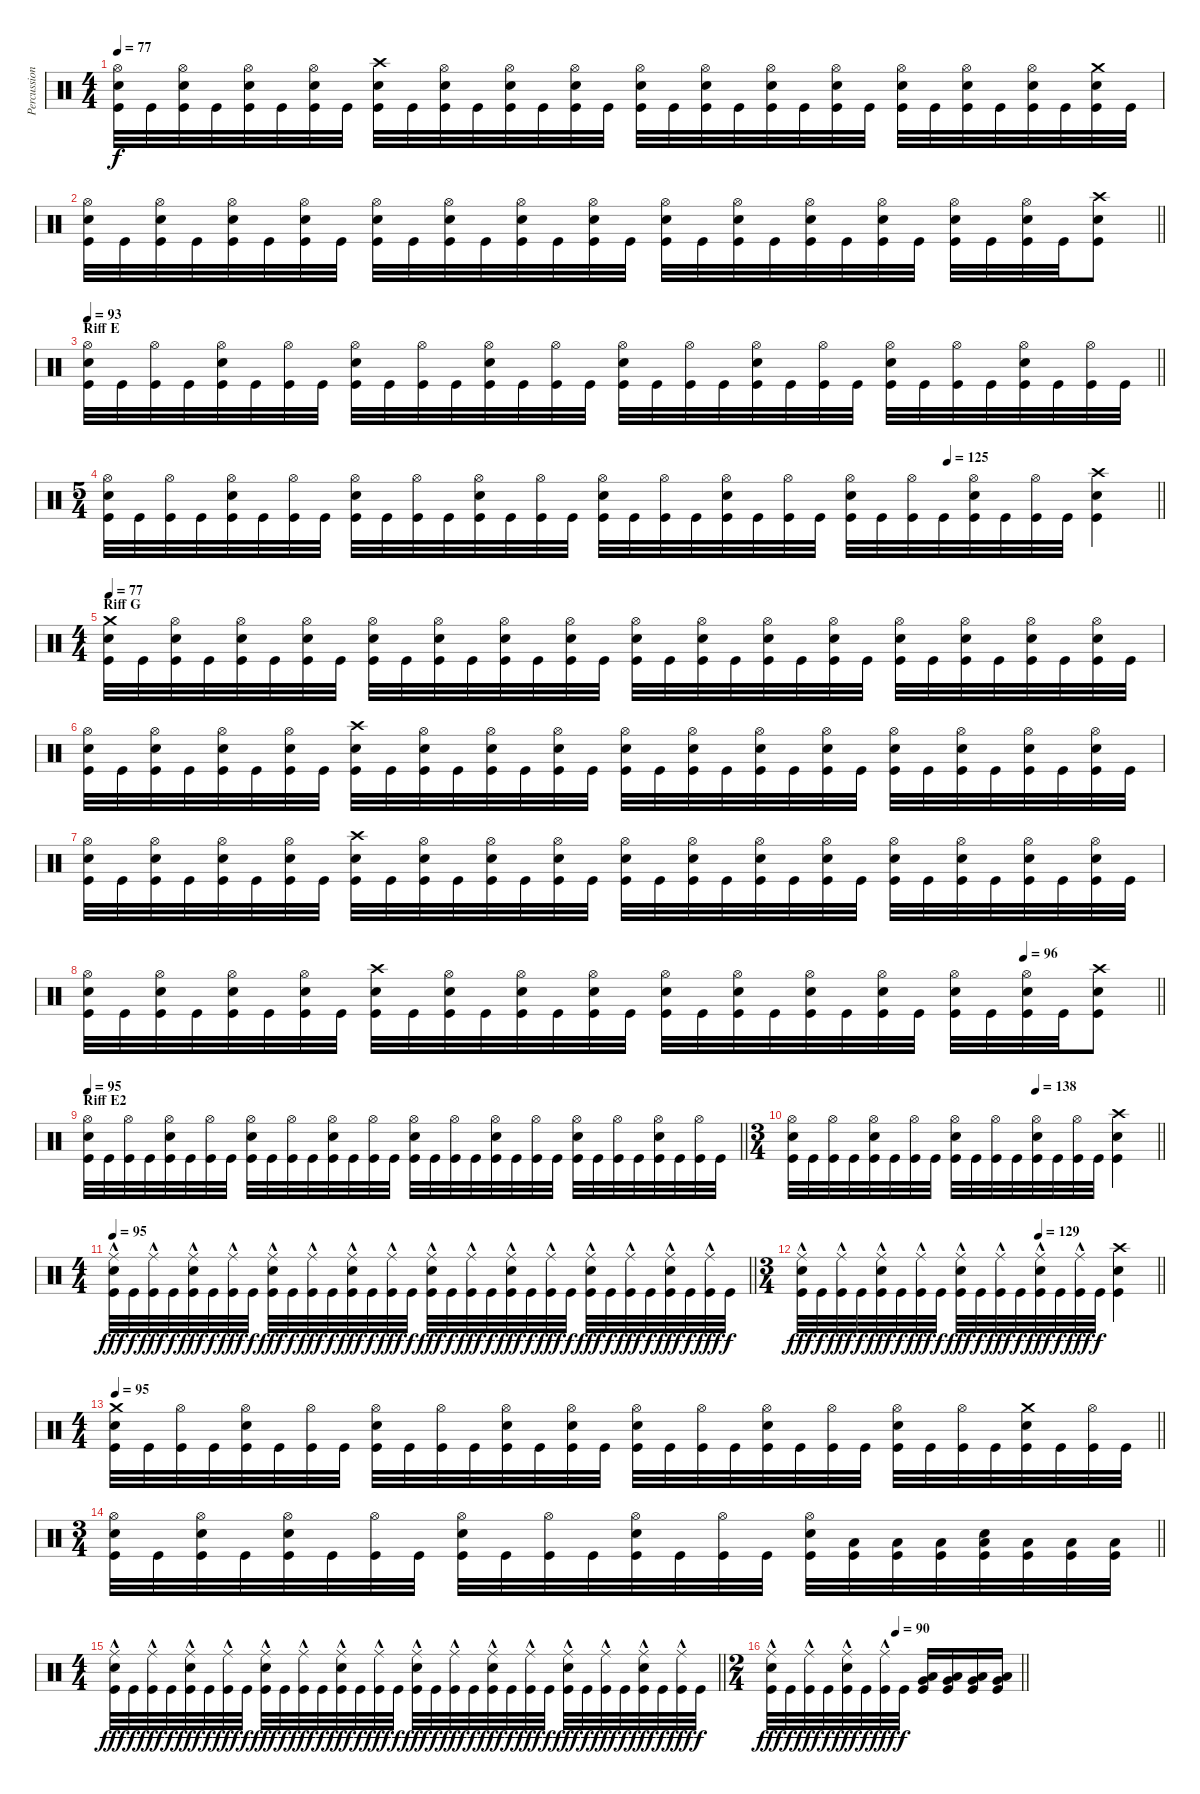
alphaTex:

\track ("Percussion" "Percussion") {instrument percussion}
\staff {score}
\articulation defaults
\ts (4 4)
\tempo 77
\clef neutral
\ks c
("Kick (hit)" "Snare (hit) 2" "Hi-Hat (open)").32{dy f} "Kick (hit)".32 ("Kick (hit)" "Snare (hit) 2" "Hi-Hat (open)").32 "Kick (hit)".32 ("Kick (hit)" "Snare (hit) 2" "Hi-Hat (open)").32 "Kick (hit)".32 ("Kick (hit)" "Snare (hit) 2" "Hi-Hat (open)").32 "Kick (hit)".32 ("Kick (hit)" "Snare (hit) 2" "Crash high (hit)").32 "Kick (hit)".32 ("Kick (hit)" "Snare (hit) 2" "Hi-Hat (open)").32 "Kick (hit)".32 ("Kick (hit)" "Snare (hit) 2" "Hi-Hat (open)").32 "Kick (hit)".32 ("Kick (hit)" "Snare (hit) 2" "Hi-Hat (open)").32 "Kick (hit)".32 ("Kick (hit)" "Snare (hit) 2" "Hi-Hat (open)").32 "Kick (hit)".32 ("Kick (hit)" "Snare (hit) 2" "Hi-Hat (open)").32 "Kick (hit)".32 ("Kick (hit)" "Snare (hit) 2" "Hi-Hat (open)").32 "Kick (hit)".32 ("Kick (hit)" "Snare (hit) 2" "Hi-Hat (open)").32 "Kick (hit)".32 ("Kick (hit)" "Snare (hit) 2" "Hi-Hat (open)").32 "Kick (hit)".32 ("Kick (hit)" "Snare (hit) 2" "Hi-Hat (open)").32 "Kick (hit)".32 ("Kick (hit)" "Snare (hit) 2" "Hi-Hat (open)").32 "Kick (hit)".32 ("Kick (hit)" "Snare (hit) 2" "Crash medium (hit)").32 "Kick (hit)".32 |
\barLineRight lightlight
("Kick (hit)" "Snare (hit) 2" "Hi-Hat (open)").32 "Kick (hit)".32 ("Kick (hit)" "Snare (hit) 2" "Hi-Hat (open)").32 "Kick (hit)".32 ("Kick (hit)" "Snare (hit) 2" "Hi-Hat (open)").32 "Kick (hit)".32 ("Kick (hit)" "Snare (hit) 2" "Hi-Hat (open)").32 "Kick (hit)".32 ("Kick (hit)" "Snare (hit) 2" "Hi-Hat (open)").32 "Kick (hit)".32 ("Kick (hit)" "Snare (hit) 2" "Hi-Hat (open)").32 "Kick (hit)".32 ("Kick (hit)" "Snare (hit) 2" "Hi-Hat (open)").32 "Kick (hit)".32 ("Kick (hit)" "Snare (hit) 2" "Hi-Hat (open)").32 "Kick (hit)".32 ("Kick (hit)" "Snare (hit) 2" "Hi-Hat (open)").32 "Kick (hit)".32 ("Kick (hit)" "Snare (hit) 2" "Hi-Hat (open)").32 "Kick (hit)".32 ("Kick (hit)" "Snare (hit) 2" "Hi-Hat (open)").32 "Kick (hit)".32 ("Kick (hit)" "Snare (hit) 2" "Hi-Hat (open)").32 "Kick (hit)".32 ("Kick (hit)" "Snare (hit) 2" "Hi-Hat (open)").32 "Kick (hit)".32 ("Kick (hit)" "Snare (hit) 2" "Hi-Hat (open)").32 "Kick (hit)".32 ("Kick (hit)" "Snare (hit) 2" "Crash high (hit)").8 |
\section ("" "Riff E")
\tempo 93
\barLineRight lightlight
("Kick (hit)" "Hi-Hat (open)" "Snare (hit) 2").32 "Kick (hit)".32 ("Kick (hit)" "Hi-Hat (open)").32 "Kick (hit)".32 ("Kick (hit)" "Hi-Hat (open)" "Snare (hit) 2").32 "Kick (hit)".32 ("Kick (hit)" "Hi-Hat (open)").32 "Kick (hit)".32 ("Kick (hit)" "Hi-Hat (open)" "Snare (hit) 2").32 "Kick (hit)".32 ("Kick (hit)" "Hi-Hat (open)").32 "Kick (hit)".32 ("Kick (hit)" "Hi-Hat (open)" "Snare (hit) 2").32 "Kick (hit)".32 ("Kick (hit)" "Hi-Hat (open)").32 "Kick (hit)".32 ("Kick (hit)" "Hi-Hat (open)" "Snare (hit) 2").32 "Kick (hit)".32 ("Kick (hit)" "Hi-Hat (open)").32 "Kick (hit)".32 ("Kick (hit)" "Hi-Hat (open)" "Snare (hit) 2").32 "Kick (hit)".32 ("Kick (hit)" "Hi-Hat (open)").32 "Kick (hit)".32 ("Kick (hit)" "Hi-Hat (open)" "Snare (hit) 2").32 "Kick (hit)".32 ("Kick (hit)" "Hi-Hat (open)").32 "Kick (hit)".32 ("Kick (hit)" "Hi-Hat (open)" "Snare (hit) 2").32 "Kick (hit)".32 ("Kick (hit)" "Hi-Hat (open)").32 "Kick (hit)".32 |
\ts (5 4)
\tempo (125 0.8)
\barLineRight lightlight
("Kick (hit)" "Hi-Hat (open)" "Snare (hit) 2").32 "Kick (hit)".32 ("Kick (hit)" "Hi-Hat (open)").32 "Kick (hit)".32 ("Kick (hit)" "Hi-Hat (open)" "Snare (hit) 2").32 "Kick (hit)".32 ("Kick (hit)" "Hi-Hat (open)").32 "Kick (hit)".32 ("Kick (hit)" "Hi-Hat (open)" "Snare (hit) 2").32 "Kick (hit)".32 ("Kick (hit)" "Hi-Hat (open)").32 "Kick (hit)".32 ("Kick (hit)" "Hi-Hat (open)" "Snare (hit) 2").32 "Kick (hit)".32 ("Kick (hit)" "Hi-Hat (open)").32 "Kick (hit)".32 ("Kick (hit)" "Hi-Hat (open)" "Snare (hit) 2").32 "Kick (hit)".32 ("Kick (hit)" "Hi-Hat (open)").32 "Kick (hit)".32 ("Kick (hit)" "Hi-Hat (open)" "Snare (hit) 2").32 "Kick (hit)".32 ("Kick (hit)" "Hi-Hat (open)").32 "Kick (hit)".32 ("Kick (hit)" "Hi-Hat (open)" "Snare (hit) 2").32 "Kick (hit)".32 ("Kick (hit)" "Hi-Hat (open)").32 "Kick (hit)".32 ("Kick (hit)" "Hi-Hat (open)" "Snare (hit) 2").32 "Kick (hit)".32 ("Kick (hit)" "Hi-Hat (open)").32 "Kick (hit)".32 ("Snare (hit) 2" "Crash high (hit)" "Kick (hit)").4 |
\ts (4 4)
\section ("" "Riff G")
\tempo 77
("Kick (hit)" "Snare (hit) 2" "Crash medium (hit)").32 "Kick (hit)".32 ("Kick (hit)" "Snare (hit) 2" "Hi-Hat (open)").32 "Kick (hit)".32 ("Kick (hit)" "Snare (hit) 2" "Hi-Hat (open)").32 "Kick (hit)".32 ("Kick (hit)" "Snare (hit) 2" "Hi-Hat (open)").32 "Kick (hit)".32 ("Kick (hit)" "Snare (hit) 2" "Hi-Hat (open)").32 "Kick (hit)".32 ("Kick (hit)" "Snare (hit) 2" "Hi-Hat (open)").32 "Kick (hit)".32 ("Kick (hit)" "Snare (hit) 2" "Hi-Hat (open)").32 "Kick (hit)".32 ("Kick (hit)" "Snare (hit) 2" "Hi-Hat (open)").32 "Kick (hit)".32 ("Kick (hit)" "Snare (hit) 2" "Hi-Hat (open)").32 "Kick (hit)".32 ("Kick (hit)" "Snare (hit) 2" "Hi-Hat (open)").32 "Kick (hit)".32 ("Kick (hit)" "Snare (hit) 2" "Hi-Hat (open)").32 "Kick (hit)".32 ("Kick (hit)" "Snare (hit) 2" "Hi-Hat (open)").32 "Kick (hit)".32 ("Kick (hit)" "Snare (hit) 2" "Hi-Hat (open)").32 "Kick (hit)".32 ("Kick (hit)" "Snare (hit) 2" "Hi-Hat (open)").32 "Kick (hit)".32 ("Kick (hit)" "Snare (hit) 2" "Hi-Hat (open)").32 "Kick (hit)".32 ("Kick (hit)" "Snare (hit) 2" "Hi-Hat (open)").32 "Kick (hit)".32 |
("Kick (hit)" "Snare (hit) 2" "Hi-Hat (open)").32 "Kick (hit)".32 ("Kick (hit)" "Snare (hit) 2" "Hi-Hat (open)").32 "Kick (hit)".32 ("Kick (hit)" "Snare (hit) 2" "Hi-Hat (open)").32 "Kick (hit)".32 ("Kick (hit)" "Snare (hit) 2" "Hi-Hat (open)").32 "Kick (hit)".32 ("Kick (hit)" "Snare (hit) 2" "Crash high (hit)").32 "Kick (hit)".32 ("Kick (hit)" "Snare (hit) 2" "Hi-Hat (open)").32 "Kick (hit)".32 ("Kick (hit)" "Snare (hit) 2" "Hi-Hat (open)").32 "Kick (hit)".32 ("Kick (hit)" "Snare (hit) 2" "Hi-Hat (open)").32 "Kick (hit)".32 ("Kick (hit)" "Snare (hit) 2" "Hi-Hat (open)").32 "Kick (hit)".32 ("Kick (hit)" "Snare (hit) 2" "Hi-Hat (open)").32 "Kick (hit)".32 ("Kick (hit)" "Snare (hit) 2" "Hi-Hat (open)").32 "Kick (hit)".32 ("Kick (hit)" "Snare (hit) 2" "Hi-Hat (open)").32 "Kick (hit)".32 ("Kick (hit)" "Snare (hit) 2" "Hi-Hat (open)").32 "Kick (hit)".32 ("Kick (hit)" "Snare (hit) 2" "Hi-Hat (open)").32 "Kick (hit)".32 ("Kick (hit)" "Snare (hit) 2" "Hi-Hat (open)").32 "Kick (hit)".32 ("Kick (hit)" "Snare (hit) 2" "Hi-Hat (open)").32 "Kick (hit)".32 |
("Kick (hit)" "Snare (hit) 2" "Hi-Hat (open)").32 "Kick (hit)".32 ("Kick (hit)" "Snare (hit) 2" "Hi-Hat (open)").32 "Kick (hit)".32 ("Kick (hit)" "Snare (hit) 2" "Hi-Hat (open)").32 "Kick (hit)".32 ("Kick (hit)" "Snare (hit) 2" "Hi-Hat (open)").32 "Kick (hit)".32 ("Kick (hit)" "Snare (hit) 2" "Crash high (hit)").32 "Kick (hit)".32 ("Kick (hit)" "Snare (hit) 2" "Hi-Hat (open)").32 "Kick (hit)".32 ("Kick (hit)" "Snare (hit) 2" "Hi-Hat (open)").32 "Kick (hit)".32 ("Kick (hit)" "Snare (hit) 2" "Hi-Hat (open)").32 "Kick (hit)".32 ("Kick (hit)" "Snare (hit) 2" "Hi-Hat (open)").32 "Kick (hit)".32 ("Kick (hit)" "Snare (hit) 2" "Hi-Hat (open)").32 "Kick (hit)".32 ("Kick (hit)" "Snare (hit) 2" "Hi-Hat (open)").32 "Kick (hit)".32 ("Kick (hit)" "Snare (hit) 2" "Hi-Hat (open)").32 "Kick (hit)".32 ("Kick (hit)" "Snare (hit) 2" "Hi-Hat (open)").32 "Kick (hit)".32 ("Kick (hit)" "Snare (hit) 2" "Hi-Hat (open)").32 "Kick (hit)".32 ("Kick (hit)" "Snare (hit) 2" "Hi-Hat (open)").32 "Kick (hit)".32 ("Kick (hit)" "Snare (hit) 2" "Hi-Hat (open)").32 "Kick (hit)".32 |
\tempo (96 0.875)
\barLineRight lightlight
("Kick (hit)" "Snare (hit) 2" "Hi-Hat (open)").32 "Kick (hit)".32 ("Kick (hit)" "Snare (hit) 2" "Hi-Hat (open)").32 "Kick (hit)".32 ("Kick (hit)" "Snare (hit) 2" "Hi-Hat (open)").32 "Kick (hit)".32 ("Kick (hit)" "Snare (hit) 2" "Hi-Hat (open)").32 "Kick (hit)".32 ("Kick (hit)" "Snare (hit) 2" "Crash high (hit)").32 "Kick (hit)".32 ("Kick (hit)" "Snare (hit) 2" "Hi-Hat (open)").32 "Kick (hit)".32 ("Kick (hit)" "Snare (hit) 2" "Hi-Hat (open)").32 "Kick (hit)".32 ("Kick (hit)" "Snare (hit) 2" "Hi-Hat (open)").32 "Kick (hit)".32 ("Kick (hit)" "Snare (hit) 2" "Hi-Hat (open)").32 "Kick (hit)".32 ("Kick (hit)" "Snare (hit) 2" "Hi-Hat (open)").32 "Kick (hit)".32 ("Kick (hit)" "Snare (hit) 2" "Hi-Hat (open)").32 "Kick (hit)".32 ("Kick (hit)" "Snare (hit) 2" "Hi-Hat (open)").32 "Kick (hit)".32 ("Kick (hit)" "Snare (hit) 2" "Hi-Hat (open)").32 "Kick (hit)".32 ("Kick (hit)" "Snare (hit) 2" "Hi-Hat (open)").32 "Kick (hit)".32 ("Kick (hit)" "Snare (hit) 2" "Crash high (hit)").8 |
\section ("" "Riff E2")
\tempo 95
\barLineRight lightlight
("Kick (hit)" "Hi-Hat (open)" "Snare (hit) 2").32 "Kick (hit)".32 ("Kick (hit)" "Hi-Hat (open)").32 "Kick (hit)".32 ("Kick (hit)" "Hi-Hat (open)" "Snare (hit) 2").32 "Kick (hit)".32 ("Kick (hit)" "Hi-Hat (open)").32 "Kick (hit)".32 ("Kick (hit)" "Hi-Hat (open)" "Snare (hit) 2").32 "Kick (hit)".32 ("Kick (hit)" "Hi-Hat (open)").32 "Kick (hit)".32 ("Kick (hit)" "Hi-Hat (open)" "Snare (hit) 2").32 "Kick (hit)".32 ("Kick (hit)" "Hi-Hat (open)").32 "Kick (hit)".32 ("Kick (hit)" "Hi-Hat (open)" "Snare (hit) 2").32 "Kick (hit)".32 ("Kick (hit)" "Hi-Hat (open)").32 "Kick (hit)".32 ("Kick (hit)" "Hi-Hat (open)" "Snare (hit) 2").32 "Kick (hit)".32 ("Kick (hit)" "Hi-Hat (open)").32 "Kick (hit)".32 ("Kick (hit)" "Hi-Hat (open)" "Snare (hit) 2").32 "Kick (hit)".32 ("Kick (hit)" "Hi-Hat (open)").32 "Kick (hit)".32 ("Kick (hit)" "Hi-Hat (open)" "Snare (hit) 2").32 "Kick (hit)".32 ("Kick (hit)" "Hi-Hat (open)").32 "Kick (hit)".32 |
\ts (3 4)
\tempo (138 0.6666666666666666)
\barLineRight lightlight
("Kick (hit)" "Hi-Hat (open)" "Snare (hit) 2").32 "Kick (hit)".32 ("Kick (hit)" "Hi-Hat (open)").32 "Kick (hit)".32 ("Kick (hit)" "Hi-Hat (open)" "Snare (hit) 2").32 "Kick (hit)".32 ("Kick (hit)" "Hi-Hat (open)").32 "Kick (hit)".32 ("Kick (hit)" "Hi-Hat (open)" "Snare (hit) 2").32 "Kick (hit)".32 ("Kick (hit)" "Hi-Hat (open)").32 "Kick (hit)".32 ("Kick (hit)" "Hi-Hat (open)" "Snare (hit) 2").32 "Kick (hit)".32 ("Kick (hit)" "Hi-Hat (open)").32 "Kick (hit)".32 ("Snare (hit) 2" "Crash high (hit)" "Kick (hit)").4 |
\ts (4 4)
\tempo 95
\barLineRight lightlight
("Kick (hit)" "Ride (middle)"{hac} "Snare (hit) 2").32{dy fff} "Kick (hit)".32{dy f} ("Kick (hit)" "Ride (middle)"{hac}).32{dy fff} "Kick (hit)".32{dy f} ("Kick (hit)" "Ride (middle)"{hac} "Snare (hit) 2").32{dy fff} "Kick (hit)".32{dy f} ("Kick (hit)" "Ride (middle)"{hac}).32{dy fff} "Kick (hit)".32{dy f} ("Kick (hit)" "Ride (middle)"{hac} "Snare (hit) 2").32{dy fff} "Kick (hit)".32{dy f} ("Kick (hit)" "Ride (middle)"{hac}).32{dy fff} "Kick (hit)".32{dy f} ("Kick (hit)" "Ride (middle)"{hac} "Snare (hit) 2").32{dy fff} "Kick (hit)".32{dy f} ("Kick (hit)" "Ride (middle)"{hac}).32{dy fff} "Kick (hit)".32{dy f} ("Kick (hit)" "Ride (middle)"{hac} "Snare (hit) 2").32{dy fff} "Kick (hit)".32{dy f} ("Kick (hit)" "Ride (middle)"{hac}).32{dy fff} "Kick (hit)".32{dy f} ("Kick (hit)" "Ride (middle)"{hac} "Snare (hit) 2").32{dy fff} "Kick (hit)".32{dy f} ("Kick (hit)" "Ride (middle)"{hac}).32{dy fff} "Kick (hit)".32{dy f} ("Kick (hit)" "Ride (middle)"{hac} "Snare (hit) 2").32{dy fff} "Kick (hit)".32{dy f} ("Kick (hit)" "Ride (middle)"{hac}).32{dy fff} "Kick (hit)".32{dy f} ("Kick (hit)" "Ride (middle)"{hac} "Snare (hit) 2").32{dy fff} "Kick (hit)".32{dy f} ("Kick (hit)" "Ride (middle)"{hac}).32{dy fff} "Kick (hit)".32{dy f} |
\ts (3 4)
\tempo (129 0.6666666666666666)
\barLineRight lightlight
("Kick (hit)" "Ride (middle)"{hac} "Snare (hit) 2").32{dy fff} "Kick (hit)".32{dy f} ("Kick (hit)" "Ride (middle)"{hac}).32{dy fff} "Kick (hit)".32{dy f} ("Kick (hit)" "Ride (middle)"{hac} "Snare (hit) 2").32{dy fff} "Kick (hit)".32{dy f} ("Kick (hit)" "Ride (middle)"{hac}).32{dy fff} "Kick (hit)".32{dy f} ("Kick (hit)" "Ride (middle)"{hac} "Snare (hit) 2").32{dy fff} "Kick (hit)".32{dy f} ("Kick (hit)" "Ride (middle)"{hac}).32{dy fff} "Kick (hit)".32{dy f} ("Kick (hit)" "Ride (middle)"{hac} "Snare (hit) 2").32{dy fff} "Kick (hit)".32{dy f} ("Kick (hit)" "Ride (middle)"{hac}).32{dy fff} "Kick (hit)".32{dy f} ("Snare (hit) 2" "Crash high (hit)" "Kick (hit)").4 |
\ts (4 4)
\tempo 95
\barLineRight lightlight
("Kick (hit)" "Crash medium (hit)" "Snare (hit) 2").32 "Kick (hit)".32 ("Kick (hit)" "Hi-Hat (open)").32 "Kick (hit)".32 ("Kick (hit)" "Hi-Hat (open)" "Snare (hit) 2").32 "Kick (hit)".32 ("Kick (hit)" "Hi-Hat (open)").32 "Kick (hit)".32 ("Kick (hit)" "Hi-Hat (open)" "Snare (hit) 2").32 "Kick (hit)".32 ("Kick (hit)" "Hi-Hat (open)").32 "Kick (hit)".32 ("Kick (hit)" "Hi-Hat (open)" "Snare (hit) 2").32 "Kick (hit)".32 ("Kick (hit)" "Hi-Hat (open)" "Snare (hit) 2").32 "Kick (hit)".32 ("Kick (hit)" "Hi-Hat (open)" "Snare (hit) 2").32 "Kick (hit)".32 ("Kick (hit)" "Hi-Hat (open)").32 "Kick (hit)".32 ("Kick (hit)" "Hi-Hat (open)" "Snare (hit) 2").32 "Kick (hit)".32 ("Kick (hit)" "Hi-Hat (open)").32 "Kick (hit)".32 ("Kick (hit)" "Hi-Hat (open)" "Snare (hit) 2").32 "Kick (hit)".32 ("Kick (hit)" "Hi-Hat (open)").32 "Kick (hit)".32 ("Kick (hit)" "Crash medium (hit)" "Snare (hit) 2").32 "Kick (hit)".32 ("Kick (hit)" "Hi-Hat (open)").32 "Kick (hit)".32 |
\ts (3 4)
\barLineRight lightlight
("Kick (hit)" "Hi-Hat (open)" "Snare (hit) 2").32 "Kick (hit)".32 ("Kick (hit)" "Hi-Hat (open)" "Snare (hit) 2").32 "Kick (hit)".32 ("Kick (hit)" "Hi-Hat (open)" "Snare (hit) 2").32 "Kick (hit)".32 ("Kick (hit)" "Hi-Hat (open)").32 "Kick (hit)".32 ("Kick (hit)" "Hi-Hat (open)" "Snare (hit) 2").32 "Kick (hit)".32 ("Kick (hit)" "Hi-Hat (open)").32 "Kick (hit)".32 ("Kick (hit)" "Hi-Hat (open)" "Snare (hit) 2").32 "Kick (hit)".32 ("Kick (hit)" "Hi-Hat (open)").32 "Kick (hit)".32 ("Kick (hit)" "Hi-Hat (open)" "Snare (hit) 2").32 ("Kick (hit)" "Low Floor Tom (hit)").32 ("Kick (hit)" "Low Floor Tom (hit)").32 ("Kick (hit)" "Low Floor Tom (hit)").32 ("Kick (hit)" "Low Tom (hit)" "Snare (hit) 2").32 ("Kick (hit)" "Low Floor Tom (hit)").32 ("Kick (hit)" "Low Floor Tom (hit)").32 ("Kick (hit)" "Low Floor Tom (hit)").32 |
\ts (4 4)
\barLineRight lightlight
("Kick (hit)" "Ride (middle)"{hac} "Snare (hit) 2").32{dy fff} "Kick (hit)".32{dy f} ("Kick (hit)" "Ride (middle)"{hac}).32{dy fff} "Kick (hit)".32{dy f} ("Kick (hit)" "Ride (middle)"{hac} "Snare (hit) 2").32{dy fff} "Kick (hit)".32{dy f} ("Kick (hit)" "Ride (middle)"{hac}).32{dy fff} "Kick (hit)".32{dy f} ("Kick (hit)" "Ride (middle)"{hac} "Snare (hit) 2").32{dy fff} "Kick (hit)".32{dy f} ("Kick (hit)" "Ride (middle)"{hac}).32{dy fff} "Kick (hit)".32{dy f} ("Kick (hit)" "Ride (middle)"{hac} "Snare (hit) 2").32{dy fff} "Kick (hit)".32{dy f} ("Kick (hit)" "Ride (middle)"{hac}).32{dy fff} "Kick (hit)".32{dy f} ("Kick (hit)" "Ride (middle)"{hac} "Snare (hit) 2").32{dy fff} "Kick (hit)".32{dy f} ("Kick (hit)" "Ride (middle)"{hac}).32{dy fff} "Kick (hit)".32{dy f} ("Kick (hit)" "Ride (middle)"{hac} "Snare (hit) 2").32{dy fff} "Kick (hit)".32{dy f} ("Kick (hit)" "Ride (middle)"{hac}).32{dy fff} "Kick (hit)".32{dy f} ("Kick (hit)" "Ride (middle)"{hac} "Snare (hit) 2").32{dy fff} "Kick (hit)".32{dy f} ("Kick (hit)" "Ride (middle)"{hac}).32{dy fff} "Kick (hit)".32{dy f} ("Kick (hit)" "Ride (middle)"{hac} "Snare (hit) 2").32{dy fff} "Kick (hit)".32{dy f} ("Kick (hit)" "Ride (middle)"{hac}).32{dy fff} "Kick (hit)".32{dy f} |
\ts (2 4)
\tempo (90 0.5)
\barLineRight lightlight
("Kick (hit)" "Ride (middle)"{hac} "Snare (hit) 2").32{dy fff} "Kick (hit)".32{dy f} ("Kick (hit)" "Ride (middle)"{hac}).32{dy fff} "Kick (hit)".32{dy f} ("Kick (hit)" "Ride (middle)"{hac} "Snare (hit) 2").32{dy fff} "Kick (hit)".32{dy f} ("Kick (hit)" "Ride (middle)"{hac}).32{dy fff} "Kick (hit)".32{dy f} ("Kick (hit)" "Very Low Tom (hit)" "Low Floor Tom (hit)").16 ("Kick (hit)" "Very Low Tom (hit)" "Low Floor Tom (hit)").16 ("Kick (hit)" "Very Low Tom (hit)" "Low Floor Tom (hit)").16 ("Kick (hit)" "Very Low Tom (hit)" "Low Floor Tom (hit)").16
